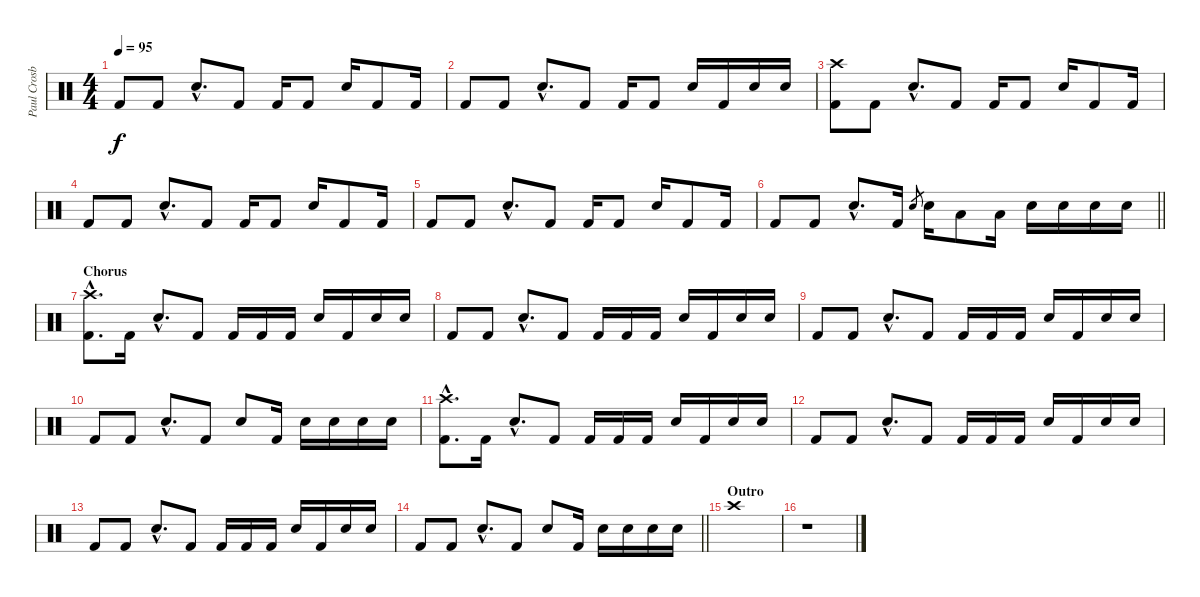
\track ("Paul Crosby (Drums)" "Paul Crosb") {instrument percussion}
\staff {score}
\articulation defaults
\ts (4 4)
\tempo 95
\clef neutral
\ks c "Kick (hit) 2".8{dy f} "Kick (hit) 2".8 "Electric Snare (hit)"{hac}.8{d} "Kick (hit) 2".8 "Kick (hit) 2".16 "Kick (hit) 2".8 "Electric Snare (hit)".16 "Kick (hit) 2".8 "Kick (hit) 2".16
|
"Kick (hit) 2".8 "Kick (hit) 2".8 "Electric Snare (hit)"{hac}.8{d} "Kick (hit) 2".8 "Kick (hit) 2".16 "Kick (hit) 2".8 "Electric Snare (hit)".16 "Kick (hit) 2".16 "Electric Snare (hit)".16 "Electric Snare (hit)".16 |
("Crash high (hit)" "Kick (hit) 2").8 "Kick (hit) 2".8 "Electric Snare (hit)"{hac}.8{d} "Kick (hit) 2".8 "Kick (hit) 2".16 "Kick (hit) 2".8 "Electric Snare (hit)".16 "Kick (hit) 2".8 "Kick (hit) 2".16 |
"Kick (hit) 2".8 "Kick (hit) 2".8 "Electric Snare (hit)"{hac}.8{d} "Kick (hit) 2".8 "Kick (hit) 2".16 "Kick (hit) 2".8 "Electric Snare (hit)".16 "Kick (hit) 2".8 "Kick (hit) 2".16 |
"Kick (hit) 2".8 "Kick (hit) 2".8 "Electric Snare (hit)"{hac}.8{d} "Kick (hit) 2".8 "Kick (hit) 2".16 "Kick (hit) 2".8 "Electric Snare (hit)".16 "Kick (hit) 2".8 "Kick (hit) 2".16 |
\barLineRight lightlight "Kick (hit) 2".8 "Kick (hit) 2".8 "Electric Snare (hit)"{hac}.8{d} "Kick (hit) 2".16 "Electric Snare (hit)".8{gr} "Electric Snare (hit)".16 "Low Floor Tom (hit)".8 "Low Tom (hit)".16 "Electric Snare (hit)".16 "Electric Snare (hit)".16 "Electric Snare (hit)".16 "Electric Snare (hit)".16
|
\section ("" "Chorus")
("Crash high (hit)"{hac} "Kick (hit) 2"{hac}).8{d} "Kick (hit) 2".16 "Electric Snare (hit)"{hac}.8{d} "Kick (hit) 2".8 "Kick (hit) 2".16 "Kick (hit) 2".16 "Kick (hit) 2".16 "Electric Snare (hit)".16 "Kick (hit) 2".16 "Electric Snare (hit)".16 "Electric Snare (hit)".16 |
"Kick (hit) 2".8 "Kick (hit) 2".8 "Electric Snare (hit)"{hac}.8{d} "Kick (hit) 2".8 "Kick (hit) 2".16 "Kick (hit) 2".16 "Kick (hit) 2".16 "Electric Snare (hit)".16 "Kick (hit) 2".16 "Electric Snare (hit)".16 "Electric Snare (hit)".16 |
"Kick (hit) 2".8 "Kick (hit) 2".8 "Electric Snare (hit)"{hac}.8{d} "Kick (hit) 2".8 "Kick (hit) 2".16 "Kick (hit) 2".16 "Kick (hit) 2".16 "Electric Snare (hit)".16 "Kick (hit) 2".16 "Electric Snare (hit)".16 "Electric Snare (hit)".16 |
"Kick (hit) 2".8 "Kick (hit) 2".8 "Electric Snare (hit)"{hac}.8{d} "Kick (hit) 2".8 "Electric Snare (hit)".8 "Kick (hit) 2".16 "Electric Snare (hit)".16 "Electric Snare (hit)".16 "Electric Snare (hit)".16 "Electric Snare (hit)".16 |
("Crash high (hit)"{hac} "Kick (hit) 2"{hac}).8{d} "Kick (hit) 2".16 "Electric Snare (hit)"{hac}.8{d} "Kick (hit) 2".8 "Kick (hit) 2".16 "Kick (hit) 2".16 "Kick (hit) 2".16 "Electric Snare (hit)".16 "Kick (hit) 2".16 "Electric Snare (hit)".16 "Electric Snare (hit)".16 |
"Kick (hit) 2".8 "Kick (hit) 2".8 "Electric Snare (hit)"{hac}.8{d} "Kick (hit) 2".8 "Kick (hit) 2".16 "Kick (hit) 2".16 "Kick (hit) 2".16 "Electric Snare (hit)".16 "Kick (hit) 2".16 "Electric Snare (hit)".16 "Electric Snare (hit)".16 |
"Kick (hit) 2".8 "Kick (hit) 2".8 "Electric Snare (hit)"{hac}.8{d} "Kick (hit) 2".8 "Kick (hit) 2".16 "Kick (hit) 2".16 "Kick (hit) 2".16 "Electric Snare (hit)".16 "Kick (hit) 2".16 "Electric Snare (hit)".16 "Electric Snare (hit)".16 |
\barLineRight lightlight "Kick (hit) 2".8 "Kick (hit) 2".8 "Electric Snare (hit)"{hac}.8{d} "Kick (hit) 2".8 "Electric Snare (hit)".8 "Kick (hit) 2".16 "Electric Snare (hit)".16 "Electric Snare (hit)".16 "Electric Snare (hit)".16 "Electric Snare (hit)".16
|
\section ("" "Outro")
"Crash high (hit)".1 |
r.1
